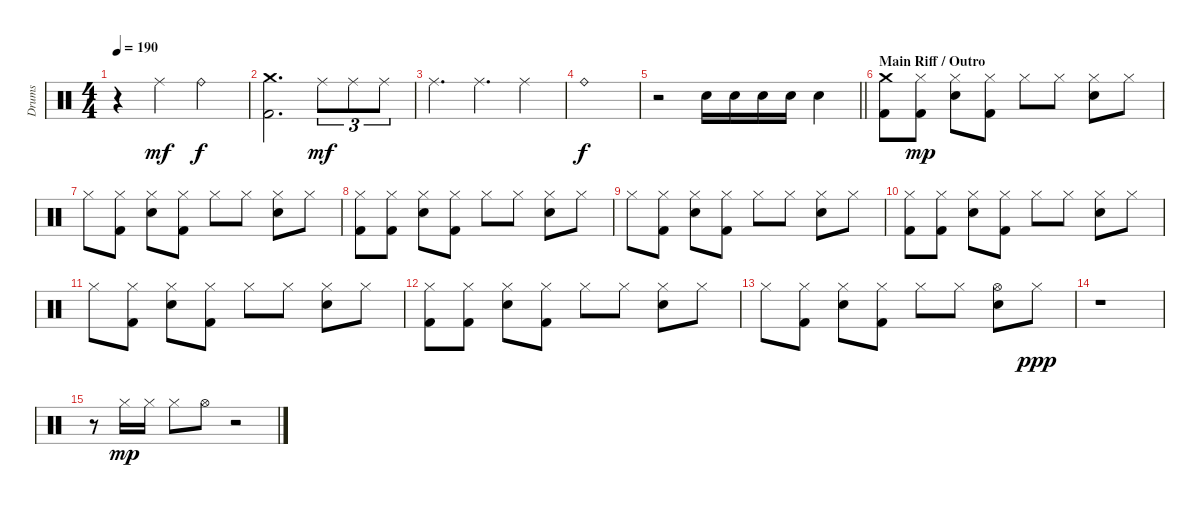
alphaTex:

\track ("Drums" "Drums") {instrument percussion}
\staff {score}
\articulation defaults
\ts (4 4)
\tempo 190
\clef neutral
\ks c
r.4{dy mf} "Ride (middle)".4 "Ride (bell)".2{dy f} |
("Crash medium (hit)" "Kick (hit) 2").2{d} "Ride (middle)".8{tu (3 2) dy mf} "Ride (middle)".8{tu (3 2)} "Ride (middle)".8{tu (3 2)} |
"Ride (middle)".4{d} "Ride (middle)".4{d} "Ride (middle)".4 |
"Ride (bell)".1{dy f} |
\barLineRight lightlight
r.2 "Snare (hit) 2".16 "Snare (hit) 2".16 "Snare (hit) 2".16 "Snare (hit) 2".16 "Snare (hit) 2".4 |
\section ("" "Main Riff / Outro")
("Crash medium (hit)" "Kick (hit) 2").8 ("Hi-Hat (closed)" "Kick (hit) 2").8{dy mp} ("Hi-Hat (closed)" "Snare (hit) 2").8 ("Hi-Hat (closed)" "Kick (hit) 2").8 "Hi-Hat (closed)".8 "Hi-Hat (closed)".8 ("Hi-Hat (closed)" "Snare (hit) 2").8 "Hi-Hat (closed)".8 |
"Hi-Hat (closed)".8 ("Hi-Hat (closed)" "Kick (hit) 2").8 ("Hi-Hat (closed)" "Snare (hit) 2").8 ("Hi-Hat (closed)" "Kick (hit) 2").8 "Hi-Hat (closed)".8 "Hi-Hat (closed)".8 ("Hi-Hat (closed)" "Snare (hit) 2").8 "Hi-Hat (closed)".8 |
("Hi-Hat (closed)" "Kick (hit) 2").8 ("Hi-Hat (closed)" "Kick (hit) 2").8 ("Hi-Hat (closed)" "Snare (hit) 2").8 ("Hi-Hat (closed)" "Kick (hit) 2").8 "Hi-Hat (closed)".8 "Hi-Hat (closed)".8 ("Hi-Hat (closed)" "Snare (hit) 2").8 "Hi-Hat (closed)".8 |
"Hi-Hat (closed)".8 ("Hi-Hat (closed)" "Kick (hit) 2").8 ("Hi-Hat (closed)" "Snare (hit) 2").8 ("Hi-Hat (closed)" "Kick (hit) 2").8 "Hi-Hat (closed)".8 "Hi-Hat (closed)".8 ("Hi-Hat (closed)" "Snare (hit) 2").8 "Hi-Hat (closed)".8 |
("Hi-Hat (closed)" "Kick (hit) 2").8 ("Hi-Hat (closed)" "Kick (hit) 2").8 ("Hi-Hat (closed)" "Snare (hit) 2").8 ("Hi-Hat (closed)" "Kick (hit) 2").8 "Hi-Hat (closed)".8 "Hi-Hat (closed)".8 ("Hi-Hat (closed)" "Snare (hit) 2").8 "Hi-Hat (closed)".8 |
"Hi-Hat (closed)".8 ("Hi-Hat (closed)" "Kick (hit) 2").8 ("Hi-Hat (closed)" "Snare (hit) 2").8 ("Hi-Hat (closed)" "Kick (hit) 2").8 "Hi-Hat (closed)".8 "Hi-Hat (closed)".8 ("Hi-Hat (closed)" "Snare (hit) 2").8 "Hi-Hat (closed)".8 |
("Hi-Hat (closed)" "Kick (hit) 2").8 ("Hi-Hat (closed)" "Kick (hit) 2").8 ("Hi-Hat (closed)" "Snare (hit) 2").8 ("Hi-Hat (closed)" "Kick (hit) 2").8 "Hi-Hat (closed)".8 "Hi-Hat (closed)".8 ("Hi-Hat (closed)" "Snare (hit) 2").8 "Hi-Hat (closed)".8 |
"Hi-Hat (closed)".8 ("Hi-Hat (closed)" "Kick (hit) 2").8 ("Hi-Hat (closed)" "Snare (hit) 2").8 ("Hi-Hat (closed)" "Kick (hit) 2").8 "Hi-Hat (closed)".8 "Hi-Hat (closed)".8 ("Hi-Hat (open)" "Snare (hit) 2").8 "Hi-Hat (closed)".8{dy ppp} |
r.1 |
r.8 "Hi-Hat (closed)".16{dy mp} "Hi-Hat (closed)".16 "Hi-Hat (closed)".8 "Hi-Hat (open)".8 r.2
